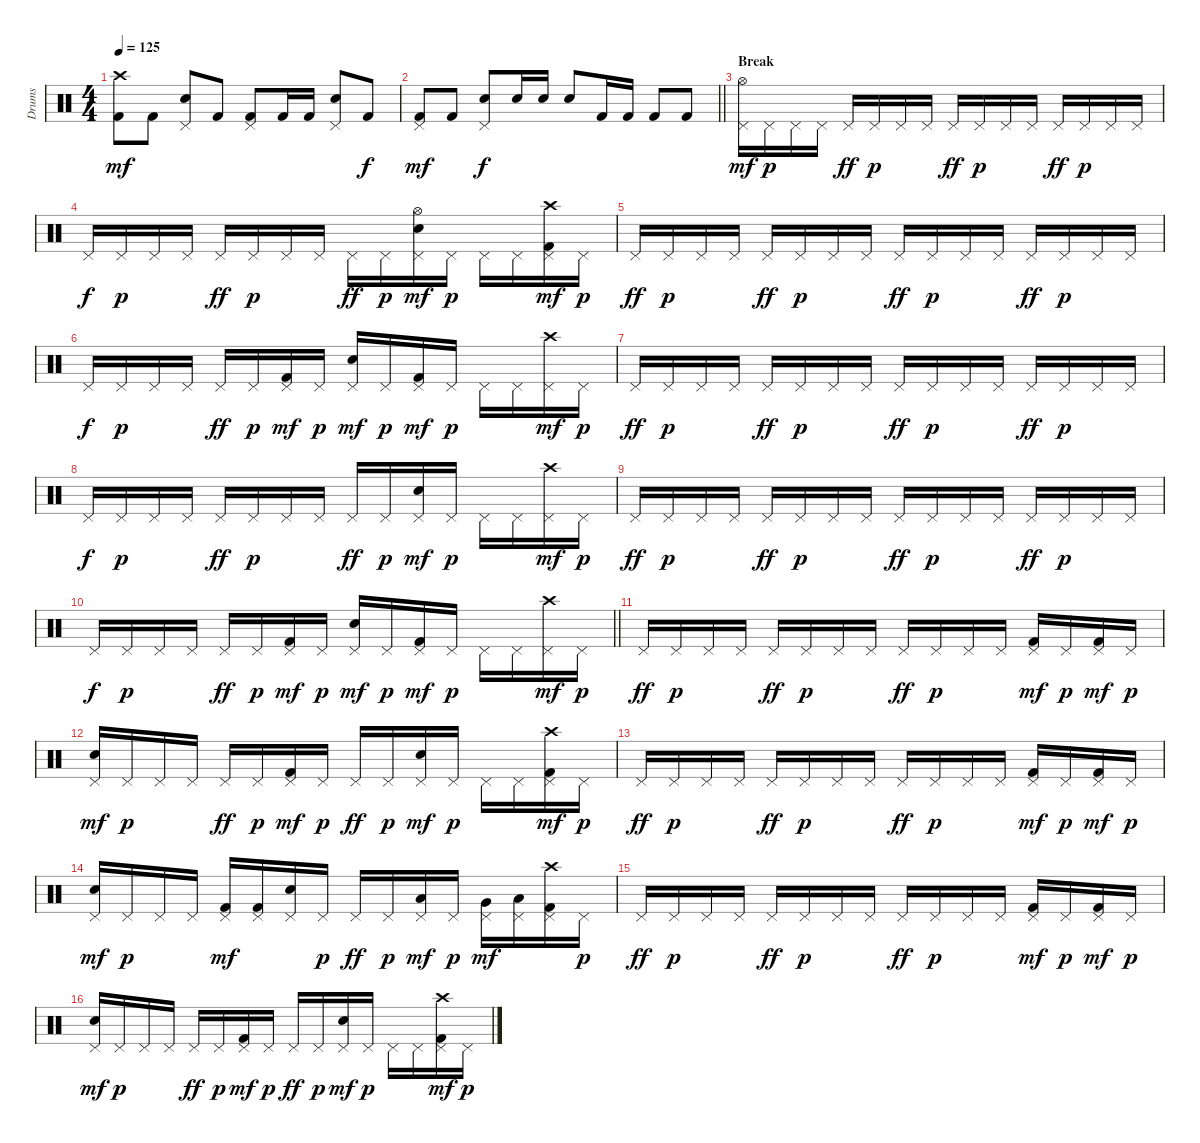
\track ("Drums" "Drums") {instrument percussion}
\staff {score}
\articulation defaults
\ts (4 4)
\tempo 125
\clef neutral
\ks c
("Crash high (hit)" "Kick (hit) 2").8{dy mf} "Kick (hit) 2".8 ("Pedal Hi-Hat (hit)" "Snare (hit) 2").8 "Kick (hit) 2".8 ("Pedal Hi-Hat (hit)" "Kick (hit) 2").8 "Kick (hit) 2".16 "Kick (hit) 2".16 ("Pedal Hi-Hat (hit)" "Snare (hit) 2").8 "Kick (hit) 2".8{dy f} |
\barLineRight lightlight
("Pedal Hi-Hat (hit)" "Kick (hit) 2").8{dy mf} "Kick (hit) 2".8 ("Pedal Hi-Hat (hit)" "Snare (hit) 2").8{dy f} "Snare (hit) 2".16 "Snare (hit) 2".16 "Snare (hit) 2".8 "Kick (hit) 2".16 "Kick (hit) 2".16 "Kick (hit) 2".8 "Kick (hit) 2".8 |
\section ("" "Break")
("Pedal Hi-Hat (hit)" "Hi-Hat (open)").16{dy mf} "Pedal Hi-Hat (hit)".16{dy p} "Pedal Hi-Hat (hit)".16 "Pedal Hi-Hat (hit)".16 "Pedal Hi-Hat (hit)".16{dy ff} "Pedal Hi-Hat (hit)".16{dy p} "Pedal Hi-Hat (hit)".16 "Pedal Hi-Hat (hit)".16 "Pedal Hi-Hat (hit)".16{dy ff} "Pedal Hi-Hat (hit)".16{dy p} "Pedal Hi-Hat (hit)".16 "Pedal Hi-Hat (hit)".16 "Pedal Hi-Hat (hit)".16{dy ff} "Pedal Hi-Hat (hit)".16{dy p} "Pedal Hi-Hat (hit)".16 "Pedal Hi-Hat (hit)".16 |
"Pedal Hi-Hat (hit)".16{dy f} "Pedal Hi-Hat (hit)".16{dy p} "Pedal Hi-Hat (hit)".16 "Pedal Hi-Hat (hit)".16 "Pedal Hi-Hat (hit)".16{dy ff} "Pedal Hi-Hat (hit)".16{dy p} "Pedal Hi-Hat (hit)".16 "Pedal Hi-Hat (hit)".16 "Pedal Hi-Hat (hit)".16{dy ff} "Pedal Hi-Hat (hit)".16{dy p} ("Pedal Hi-Hat (hit)" "Hi-Hat (open)" "Snare (hit) 2").16{dy mf} "Pedal Hi-Hat (hit)".16{dy p} "Pedal Hi-Hat (hit)".16 "Pedal Hi-Hat (hit)".16 ("Pedal Hi-Hat (hit)" "Crash high (hit)" "Kick (hit) 2").16{dy mf} "Pedal Hi-Hat (hit)".16{dy p} |
"Pedal Hi-Hat (hit)".16{dy ff} "Pedal Hi-Hat (hit)".16{dy p} "Pedal Hi-Hat (hit)".16 "Pedal Hi-Hat (hit)".16 "Pedal Hi-Hat (hit)".16{dy ff} "Pedal Hi-Hat (hit)".16{dy p} "Pedal Hi-Hat (hit)".16 "Pedal Hi-Hat (hit)".16 "Pedal Hi-Hat (hit)".16{dy ff} "Pedal Hi-Hat (hit)".16{dy p} "Pedal Hi-Hat (hit)".16 "Pedal Hi-Hat (hit)".16 "Pedal Hi-Hat (hit)".16{dy ff} "Pedal Hi-Hat (hit)".16{dy p} "Pedal Hi-Hat (hit)".16 "Pedal Hi-Hat (hit)".16 |
"Pedal Hi-Hat (hit)".16{dy f} "Pedal Hi-Hat (hit)".16{dy p} "Pedal Hi-Hat (hit)".16 "Pedal Hi-Hat (hit)".16 "Pedal Hi-Hat (hit)".16{dy ff} "Pedal Hi-Hat (hit)".16{dy p} ("Pedal Hi-Hat (hit)" "Kick (hit) 2").16{dy mf} "Pedal Hi-Hat (hit)".16{dy p} ("Pedal Hi-Hat (hit)" "Snare (hit) 2").16{dy mf} "Pedal Hi-Hat (hit)".16{dy p} ("Pedal Hi-Hat (hit)" "Kick (hit) 2").16{dy mf} "Pedal Hi-Hat (hit)".16{dy p} "Pedal Hi-Hat (hit)".16 "Pedal Hi-Hat (hit)".16 ("Pedal Hi-Hat (hit)" "Crash high (hit)").16{dy mf} "Pedal Hi-Hat (hit)".16{dy p} |
"Pedal Hi-Hat (hit)".16{dy ff} "Pedal Hi-Hat (hit)".16{dy p} "Pedal Hi-Hat (hit)".16 "Pedal Hi-Hat (hit)".16 "Pedal Hi-Hat (hit)".16{dy ff} "Pedal Hi-Hat (hit)".16{dy p} "Pedal Hi-Hat (hit)".16 "Pedal Hi-Hat (hit)".16 "Pedal Hi-Hat (hit)".16{dy ff} "Pedal Hi-Hat (hit)".16{dy p} "Pedal Hi-Hat (hit)".16 "Pedal Hi-Hat (hit)".16 "Pedal Hi-Hat (hit)".16{dy ff} "Pedal Hi-Hat (hit)".16{dy p} "Pedal Hi-Hat (hit)".16 "Pedal Hi-Hat (hit)".16 |
"Pedal Hi-Hat (hit)".16{dy f} "Pedal Hi-Hat (hit)".16{dy p} "Pedal Hi-Hat (hit)".16 "Pedal Hi-Hat (hit)".16 "Pedal Hi-Hat (hit)".16{dy ff} "Pedal Hi-Hat (hit)".16{dy p} "Pedal Hi-Hat (hit)".16 "Pedal Hi-Hat (hit)".16 "Pedal Hi-Hat (hit)".16{dy ff} "Pedal Hi-Hat (hit)".16{dy p} ("Pedal Hi-Hat (hit)" "Snare (hit) 2").16{dy mf} "Pedal Hi-Hat (hit)".16{dy p} "Pedal Hi-Hat (hit)".16 "Pedal Hi-Hat (hit)".16 ("Pedal Hi-Hat (hit)" "Crash high (hit)").16{dy mf} "Pedal Hi-Hat (hit)".16{dy p} |
"Pedal Hi-Hat (hit)".16{dy ff} "Pedal Hi-Hat (hit)".16{dy p} "Pedal Hi-Hat (hit)".16 "Pedal Hi-Hat (hit)".16 "Pedal Hi-Hat (hit)".16{dy ff} "Pedal Hi-Hat (hit)".16{dy p} "Pedal Hi-Hat (hit)".16 "Pedal Hi-Hat (hit)".16 "Pedal Hi-Hat (hit)".16{dy ff} "Pedal Hi-Hat (hit)".16{dy p} "Pedal Hi-Hat (hit)".16 "Pedal Hi-Hat (hit)".16 "Pedal Hi-Hat (hit)".16{dy ff} "Pedal Hi-Hat (hit)".16{dy p} "Pedal Hi-Hat (hit)".16 "Pedal Hi-Hat (hit)".16 |
\barLineRight lightlight "Pedal Hi-Hat (hit)".16{dy f} "Pedal Hi-Hat (hit)".16{dy p} "Pedal Hi-Hat (hit)".16 "Pedal Hi-Hat (hit)".16 "Pedal Hi-Hat (hit)".16{dy ff} "Pedal Hi-Hat (hit)".16{dy p}
("Pedal Hi-Hat (hit)" "Kick (hit) 2").16{dy mf} "Pedal Hi-Hat (hit)".16{dy p} ("Pedal Hi-Hat (hit)" "Snare (hit) 2").16{dy mf} "Pedal Hi-Hat (hit)".16{dy p} ("Pedal Hi-Hat (hit)" "Kick (hit) 2").16{dy mf} "Pedal Hi-Hat (hit)".16{dy p} "Pedal Hi-Hat (hit)".16 "Pedal Hi-Hat (hit)".16 ("Pedal Hi-Hat (hit)" "Crash high (hit)").16{dy mf} "Pedal Hi-Hat (hit)".16{dy p} |
\section ("" "")
"Pedal Hi-Hat (hit)".16{dy ff} "Pedal Hi-Hat (hit)".16{dy p} "Pedal Hi-Hat (hit)".16 "Pedal Hi-Hat (hit)".16 "Pedal Hi-Hat (hit)".16{dy ff} "Pedal Hi-Hat (hit)".16{dy p} "Pedal Hi-Hat (hit)".16 "Pedal Hi-Hat (hit)".16 "Pedal Hi-Hat (hit)".16{dy ff} "Pedal Hi-Hat (hit)".16{dy p} "Pedal Hi-Hat (hit)".16 "Pedal Hi-Hat (hit)".16 ("Pedal Hi-Hat (hit)" "Kick (hit) 2").16{dy mf} "Pedal Hi-Hat (hit)".16{dy p} ("Pedal Hi-Hat (hit)" "Kick (hit) 2").16{dy mf} "Pedal Hi-Hat (hit)".16{dy p} |
("Pedal Hi-Hat (hit)" "Snare (hit) 2").16{dy mf} "Pedal Hi-Hat (hit)".16{dy p} "Pedal Hi-Hat (hit)".16 "Pedal Hi-Hat (hit)".16 "Pedal Hi-Hat (hit)".16{dy ff} "Pedal Hi-Hat (hit)".16{dy p} ("Pedal Hi-Hat (hit)" "Kick (hit) 2").16{dy mf} "Pedal Hi-Hat (hit)".16{dy p} "Pedal Hi-Hat (hit)".16{dy ff} "Pedal Hi-Hat (hit)".16{dy p} ("Pedal Hi-Hat (hit)" "Snare (hit) 2").16{dy mf} "Pedal Hi-Hat (hit)".16{dy p} "Pedal Hi-Hat (hit)".16 "Pedal Hi-Hat (hit)".16 ("Pedal Hi-Hat (hit)" "Crash high (hit)" "Kick (hit) 2").16{dy mf} "Pedal Hi-Hat (hit)".16{dy p} |
"Pedal Hi-Hat (hit)".16{dy ff} "Pedal Hi-Hat (hit)".16{dy p} "Pedal Hi-Hat (hit)".16 "Pedal Hi-Hat (hit)".16 "Pedal Hi-Hat (hit)".16{dy ff} "Pedal Hi-Hat (hit)".16{dy p} "Pedal Hi-Hat (hit)".16 "Pedal Hi-Hat (hit)".16 "Pedal Hi-Hat (hit)".16{dy ff} "Pedal Hi-Hat (hit)".16{dy p} "Pedal Hi-Hat (hit)".16 "Pedal Hi-Hat (hit)".16 ("Pedal Hi-Hat (hit)" "Kick (hit) 2").16{dy mf} "Pedal Hi-Hat (hit)".16{dy p} ("Pedal Hi-Hat (hit)" "Kick (hit) 2").16{dy mf} "Pedal Hi-Hat (hit)".16{dy p} |
("Pedal Hi-Hat (hit)" "Snare (hit) 2").16{dy mf} "Pedal Hi-Hat (hit)".16{dy p} "Pedal Hi-Hat (hit)".16 "Pedal Hi-Hat (hit)".16 ("Pedal Hi-Hat (hit)" "Kick (hit) 2").16{dy mf} ("Pedal Hi-Hat (hit)" "Kick (hit) 2").16 ("Pedal Hi-Hat (hit)" "Snare (hit) 2").16 "Pedal Hi-Hat (hit)".16{dy p} "Pedal Hi-Hat (hit)".16{dy ff} "Pedal Hi-Hat (hit)".16{dy p} ("Pedal Hi-Hat (hit)" "Low Tom (hit)").16{dy mf} "Pedal Hi-Hat (hit)".16{dy p} ("Pedal Hi-Hat (hit)" "Very Low Tom (hit)").16{dy mf} ("Pedal Hi-Hat (hit)" "Low Floor Tom (hit)").16 ("Pedal Hi-Hat (hit)" "Crash high (hit)" "Kick (hit) 2").16 "Pedal Hi-Hat (hit)".16{dy p} |
"Pedal Hi-Hat (hit)".16{dy ff} "Pedal Hi-Hat (hit)".16{dy p} "Pedal Hi-Hat (hit)".16 "Pedal Hi-Hat (hit)".16 "Pedal Hi-Hat (hit)".16{dy ff} "Pedal Hi-Hat (hit)".16{dy p} "Pedal Hi-Hat (hit)".16 "Pedal Hi-Hat (hit)".16 "Pedal Hi-Hat (hit)".16{dy ff} "Pedal Hi-Hat (hit)".16{dy p} "Pedal Hi-Hat (hit)".16 "Pedal Hi-Hat (hit)".16 ("Pedal Hi-Hat (hit)" "Kick (hit) 2").16{dy mf} "Pedal Hi-Hat (hit)".16{dy p} ("Pedal Hi-Hat (hit)" "Kick (hit) 2").16{dy mf} "Pedal Hi-Hat (hit)".16{dy p} |
("Pedal Hi-Hat (hit)" "Snare (hit) 2").16{dy mf} "Pedal Hi-Hat (hit)".16{dy p} "Pedal Hi-Hat (hit)".16 "Pedal Hi-Hat (hit)".16 "Pedal Hi-Hat (hit)".16{dy ff} "Pedal Hi-Hat (hit)".16{dy p} ("Pedal Hi-Hat (hit)" "Kick (hit) 2").16{dy mf} "Pedal Hi-Hat (hit)".16{dy p} "Pedal Hi-Hat (hit)".16{dy ff} "Pedal Hi-Hat (hit)".16{dy p} ("Pedal Hi-Hat (hit)" "Snare (hit) 2").16{dy mf} "Pedal Hi-Hat (hit)".16{dy p} "Pedal Hi-Hat (hit)".16 "Pedal Hi-Hat (hit)".16 ("Pedal Hi-Hat (hit)" "Crash high (hit)" "Kick (hit) 2").16{dy mf} "Pedal Hi-Hat (hit)".16{dy p}
